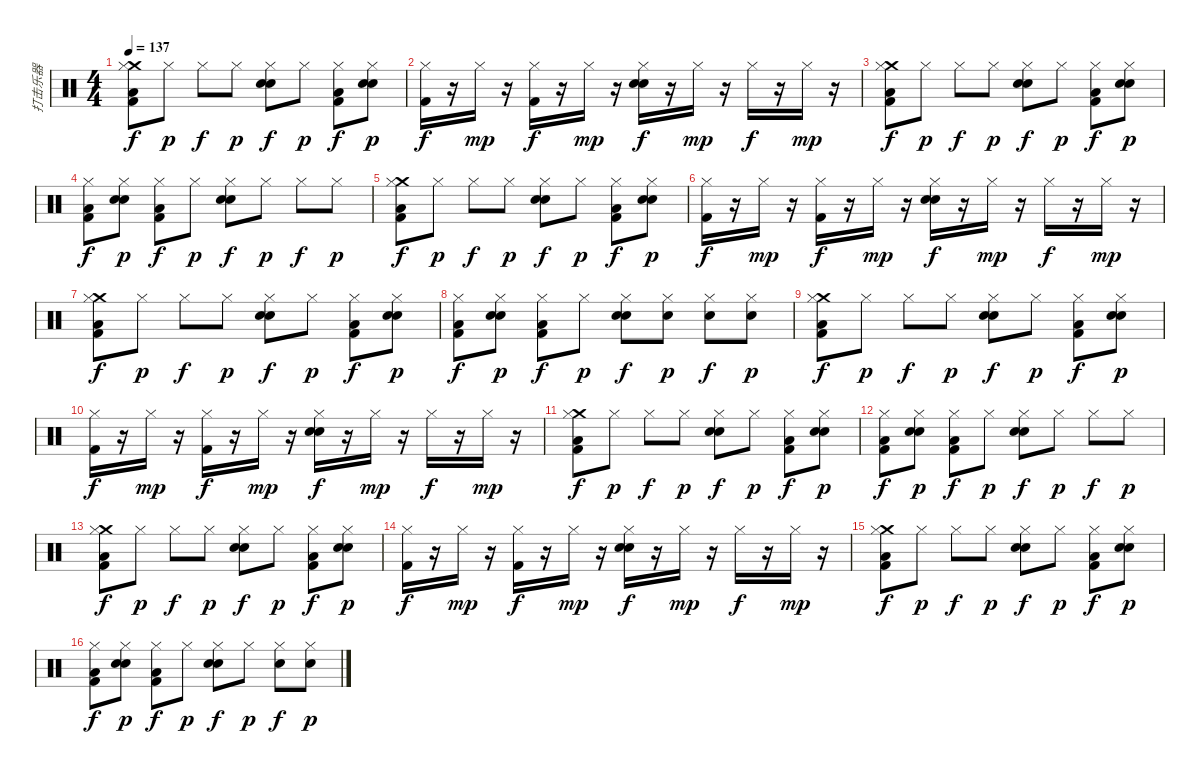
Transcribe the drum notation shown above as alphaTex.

\track ("打击乐器" "打击乐器") {instrument percussion}
\staff {score}
\articulation defaults
\ts (4 4)
\tempo 137
\clef neutral
\ks c
("Low Floor Tom (hit)" "Kick (hit) 2" "Crash medium (hit)" "Hi-Hat (closed)").8{dy f} "Hi-Hat (closed)".8{dy p} "Hi-Hat (closed)".8{dy f} "Hi-Hat (closed)".8{dy p} ("Hand Clap (hit)" "Electric Snare (hit)" "Hi-Hat (closed)").8{dy f} "Hi-Hat (closed)".8{dy p} ("Low Floor Tom (hit)" "Kick (hit) 2" "Hi-Hat (closed)").8{dy f} ("Hand Clap (hit)" "Electric Snare (hit)" "Hi-Hat (closed)").8{dy p} |
("Kick (hit) 2" "Hi-Hat (closed)").16{dy f} r.16 "Hi-Hat (closed)".16{dy mp} r.16 ("Kick (hit) 2" "Hi-Hat (closed)").16{dy f} r.16 "Hi-Hat (closed)".16{dy mp} r.16 ("Hand Clap (hit)" "Electric Snare (hit)" "Hi-Hat (closed)").16{dy f} r.16 "Hi-Hat (closed)".16{dy mp} r.16 "Hi-Hat (closed)".16{dy f} r.16 "Hi-Hat (closed)".16{dy mp} r.16 |
("Low Floor Tom (hit)" "Kick (hit) 2" "Crash medium (hit)" "Hi-Hat (closed)").8{dy f} "Hi-Hat (closed)".8{dy p} "Hi-Hat (closed)".8{dy f} "Hi-Hat (closed)".8{dy p} ("Hand Clap (hit)" "Electric Snare (hit)" "Hi-Hat (closed)").8{dy f} "Hi-Hat (closed)".8{dy p} ("Low Floor Tom (hit)" "Kick (hit) 2" "Hi-Hat (closed)").8{dy f} ("Hand Clap (hit)" "Electric Snare (hit)" "Hi-Hat (closed)").8{dy p} |
("Low Floor Tom (hit)" "Kick (hit) 2" "Hi-Hat (closed)").8{dy f} ("Hand Clap (hit)" "Electric Snare (hit)" "Hi-Hat (closed)").8{dy p} ("Low Floor Tom (hit)" "Kick (hit) 2" "Hi-Hat (closed)").8{dy f} "Hi-Hat (closed)".8{dy p} ("Hand Clap (hit)" "Electric Snare (hit)" "Hi-Hat (closed)").8{dy f} "Hi-Hat (closed)".8{dy p} "Hi-Hat (closed)".8{dy f} "Hi-Hat (closed)".8{dy p} |
("Low Floor Tom (hit)" "Kick (hit) 2" "Crash medium (hit)" "Hi-Hat (closed)").8{dy f} "Hi-Hat (closed)".8{dy p} "Hi-Hat (closed)".8{dy f} "Hi-Hat (closed)".8{dy p} ("Hand Clap (hit)" "Electric Snare (hit)" "Hi-Hat (closed)").8{dy f} "Hi-Hat (closed)".8{dy p} ("Low Floor Tom (hit)" "Kick (hit) 2" "Hi-Hat (closed)").8{dy f} ("Hand Clap (hit)" "Electric Snare (hit)" "Hi-Hat (closed)").8{dy p} |
("Kick (hit) 2" "Hi-Hat (closed)").16{dy f} r.16 "Hi-Hat (closed)".16{dy mp} r.16 ("Kick (hit) 2" "Hi-Hat (closed)").16{dy f} r.16 "Hi-Hat (closed)".16{dy mp} r.16 ("Hand Clap (hit)" "Electric Snare (hit)" "Hi-Hat (closed)").16{dy f} r.16 "Hi-Hat (closed)".16{dy mp} r.16 "Hi-Hat (closed)".16{dy f} r.16 "Hi-Hat (closed)".16{dy mp} r.16 |
("Low Floor Tom (hit)" "Kick (hit) 2" "Crash medium (hit)" "Hi-Hat (closed)").8{dy f} "Hi-Hat (closed)".8{dy p} "Hi-Hat (closed)".8{dy f} "Hi-Hat (closed)".8{dy p} ("Hand Clap (hit)" "Electric Snare (hit)" "Hi-Hat (closed)").8{dy f} "Hi-Hat (closed)".8{dy p} ("Low Floor Tom (hit)" "Kick (hit) 2" "Hi-Hat (closed)").8{dy f} ("Hand Clap (hit)" "Electric Snare (hit)" "Hi-Hat (closed)").8{dy p} |
("Low Floor Tom (hit)" "Kick (hit) 2" "Hi-Hat (closed)").8{dy f} ("Hand Clap (hit)" "Electric Snare (hit)" "Hi-Hat (closed)").8{dy p} ("Low Floor Tom (hit)" "Kick (hit) 2" "Hi-Hat (closed)").8{dy f} "Hi-Hat (closed)".8{dy p} ("Hand Clap (hit)" "Electric Snare (hit)" "Hi-Hat (closed)").8{dy f} ("Electric Snare (hit)" "Hi-Hat (closed)").8{dy p} ("Electric Snare (hit)" "Hi-Hat (closed)").8{dy f} ("Electric Snare (hit)" "Hi-Hat (closed)").8{dy p} |
("Low Floor Tom (hit)" "Kick (hit) 2" "Crash medium (hit)" "Hi-Hat (closed)").8{dy f} "Hi-Hat (closed)".8{dy p} "Hi-Hat (closed)".8{dy f} "Hi-Hat (closed)".8{dy p} ("Hand Clap (hit)" "Electric Snare (hit)" "Hi-Hat (closed)").8{dy f} "Hi-Hat (closed)".8{dy p} ("Low Floor Tom (hit)" "Kick (hit) 2" "Hi-Hat (closed)").8{dy f} ("Hand Clap (hit)" "Electric Snare (hit)" "Hi-Hat (closed)").8{dy p} |
("Kick (hit) 2" "Hi-Hat (closed)").16{dy f} r.16 "Hi-Hat (closed)".16{dy mp} r.16 ("Kick (hit) 2" "Hi-Hat (closed)").16{dy f} r.16 "Hi-Hat (closed)".16{dy mp} r.16 ("Hand Clap (hit)" "Electric Snare (hit)" "Hi-Hat (closed)").16{dy f} r.16 "Hi-Hat (closed)".16{dy mp} r.16 "Hi-Hat (closed)".16{dy f} r.16 "Hi-Hat (closed)".16{dy mp} r.16 |
("Low Floor Tom (hit)" "Kick (hit) 2" "Crash medium (hit)" "Hi-Hat (closed)").8{dy f} "Hi-Hat (closed)".8{dy p} "Hi-Hat (closed)".8{dy f} "Hi-Hat (closed)".8{dy p} ("Hand Clap (hit)" "Electric Snare (hit)" "Hi-Hat (closed)").8{dy f} "Hi-Hat (closed)".8{dy p} ("Low Floor Tom (hit)" "Kick (hit) 2" "Hi-Hat (closed)").8{dy f} ("Hand Clap (hit)" "Electric Snare (hit)" "Hi-Hat (closed)").8{dy p} |
("Low Floor Tom (hit)" "Kick (hit) 2" "Hi-Hat (closed)").8{dy f} ("Hand Clap (hit)" "Electric Snare (hit)" "Hi-Hat (closed)").8{dy p} ("Low Floor Tom (hit)" "Kick (hit) 2" "Hi-Hat (closed)").8{dy f} "Hi-Hat (closed)".8{dy p} ("Hand Clap (hit)" "Electric Snare (hit)" "Hi-Hat (closed)").8{dy f} "Hi-Hat (closed)".8{dy p} "Hi-Hat (closed)".8{dy f} "Hi-Hat (closed)".8{dy p} |
("Low Floor Tom (hit)" "Kick (hit) 2" "Crash medium (hit)" "Hi-Hat (closed)").8{dy f} "Hi-Hat (closed)".8{dy p} "Hi-Hat (closed)".8{dy f} "Hi-Hat (closed)".8{dy p} ("Hand Clap (hit)" "Electric Snare (hit)" "Hi-Hat (closed)").8{dy f} "Hi-Hat (closed)".8{dy p} ("Low Floor Tom (hit)" "Kick (hit) 2" "Hi-Hat (closed)").8{dy f} ("Hand Clap (hit)" "Electric Snare (hit)" "Hi-Hat (closed)").8{dy p} |
("Kick (hit) 2" "Hi-Hat (closed)").16{dy f} r.16 "Hi-Hat (closed)".16{dy mp} r.16 ("Kick (hit) 2" "Hi-Hat (closed)").16{dy f} r.16 "Hi-Hat (closed)".16{dy mp} r.16 ("Hand Clap (hit)" "Electric Snare (hit)" "Hi-Hat (closed)").16{dy f} r.16 "Hi-Hat (closed)".16{dy mp} r.16 "Hi-Hat (closed)".16{dy f} r.16 "Hi-Hat (closed)".16{dy mp} r.16 |
("Low Floor Tom (hit)" "Kick (hit) 2" "Crash medium (hit)" "Hi-Hat (closed)").8{dy f} "Hi-Hat (closed)".8{dy p} "Hi-Hat (closed)".8{dy f} "Hi-Hat (closed)".8{dy p} ("Hand Clap (hit)" "Electric Snare (hit)" "Hi-Hat (closed)").8{dy f} "Hi-Hat (closed)".8{dy p} ("Low Floor Tom (hit)" "Kick (hit) 2" "Hi-Hat (closed)").8{dy f} ("Hand Clap (hit)" "Electric Snare (hit)" "Hi-Hat (closed)").8{dy p} |
("Low Floor Tom (hit)" "Kick (hit) 2" "Hi-Hat (closed)").8{dy f} ("Hand Clap (hit)" "Electric Snare (hit)" "Hi-Hat (closed)").8{dy p} ("Low Floor Tom (hit)" "Kick (hit) 2" "Hi-Hat (closed)").8{dy f} "Hi-Hat (closed)".8{dy p} ("Hand Clap (hit)" "Electric Snare (hit)" "Hi-Hat (closed)").8{dy f} "Hi-Hat (closed)".8{dy p} ("Electric Snare (hit)" "Hi-Hat (closed)").8{dy f} ("Electric Snare (hit)" "Hi-Hat (closed)").8{dy p}
